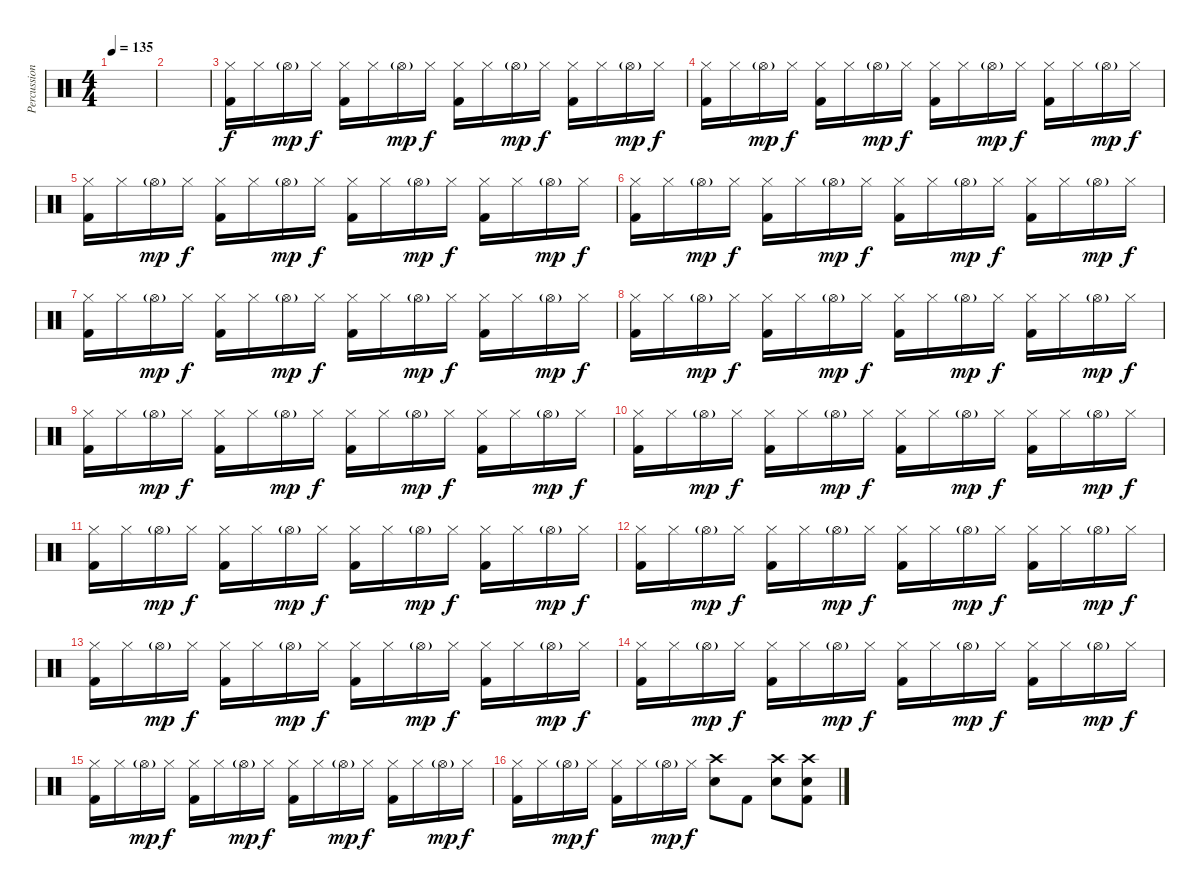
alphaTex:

\track ("Percussion" "Percussion") {instrument percussion}
\staff {score}
\articulation defaults
\ts (4 4)
\tempo 135
\clef neutral
\ks c
|
|
("Hi-Hat (closed)" "Kick (hit) 2").16 "Hi-Hat (closed)".16 "Hi-Hat (open)"{g}.16{dy mp} "Hi-Hat (closed)".16{dy f} ("Hi-Hat (closed)" "Kick (hit) 2").16 "Hi-Hat (closed)".16 "Hi-Hat (open)"{g}.16{dy mp} "Hi-Hat (closed)".16{dy f} ("Hi-Hat (closed)" "Kick (hit) 2").16 "Hi-Hat (closed)".16 "Hi-Hat (open)"{g}.16{dy mp} "Hi-Hat (closed)".16{dy f} ("Hi-Hat (closed)" "Kick (hit) 2").16 "Hi-Hat (closed)".16 "Hi-Hat (open)"{g}.16{dy mp} "Hi-Hat (closed)".16{dy f} |
("Hi-Hat (closed)" "Kick (hit) 2").16 "Hi-Hat (closed)".16 "Hi-Hat (open)"{g}.16{dy mp} "Hi-Hat (closed)".16{dy f} ("Hi-Hat (closed)" "Kick (hit) 2").16 "Hi-Hat (closed)".16 "Hi-Hat (open)"{g}.16{dy mp} "Hi-Hat (closed)".16{dy f} ("Hi-Hat (closed)" "Kick (hit) 2").16 "Hi-Hat (closed)".16 "Hi-Hat (open)"{g}.16{dy mp} "Hi-Hat (closed)".16{dy f} ("Hi-Hat (closed)" "Kick (hit) 2").16 "Hi-Hat (closed)".16 "Hi-Hat (open)"{g}.16{dy mp} "Hi-Hat (closed)".16{dy f} |
("Hi-Hat (closed)" "Kick (hit) 2").16 "Hi-Hat (closed)".16 "Hi-Hat (open)"{g}.16{dy mp} "Hi-Hat (closed)".16{dy f} ("Hi-Hat (closed)" "Kick (hit) 2").16 "Hi-Hat (closed)".16 "Hi-Hat (open)"{g}.16{dy mp} "Hi-Hat (closed)".16{dy f} ("Hi-Hat (closed)" "Kick (hit) 2").16 "Hi-Hat (closed)".16 "Hi-Hat (open)"{g}.16{dy mp} "Hi-Hat (closed)".16{dy f} ("Hi-Hat (closed)" "Kick (hit) 2").16 "Hi-Hat (closed)".16 "Hi-Hat (open)"{g}.16{dy mp} "Hi-Hat (closed)".16{dy f} |
("Hi-Hat (closed)" "Kick (hit) 2").16 "Hi-Hat (closed)".16 "Hi-Hat (open)"{g}.16{dy mp} "Hi-Hat (closed)".16{dy f} ("Hi-Hat (closed)" "Kick (hit) 2").16 "Hi-Hat (closed)".16 "Hi-Hat (open)"{g}.16{dy mp} "Hi-Hat (closed)".16{dy f} ("Hi-Hat (closed)" "Kick (hit) 2").16 "Hi-Hat (closed)".16 "Hi-Hat (open)"{g}.16{dy mp} "Hi-Hat (closed)".16{dy f} ("Hi-Hat (closed)" "Kick (hit) 2").16 "Hi-Hat (closed)".16 "Hi-Hat (open)"{g}.16{dy mp} "Hi-Hat (closed)".16{dy f} |
("Hi-Hat (closed)" "Kick (hit) 2").16 "Hi-Hat (closed)".16 "Hi-Hat (open)"{g}.16{dy mp} "Hi-Hat (closed)".16{dy f} ("Hi-Hat (closed)" "Kick (hit) 2").16 "Hi-Hat (closed)".16 "Hi-Hat (open)"{g}.16{dy mp} "Hi-Hat (closed)".16{dy f} ("Hi-Hat (closed)" "Kick (hit) 2").16 "Hi-Hat (closed)".16 "Hi-Hat (open)"{g}.16{dy mp} "Hi-Hat (closed)".16{dy f} ("Hi-Hat (closed)" "Kick (hit) 2").16 "Hi-Hat (closed)".16 "Hi-Hat (open)"{g}.16{dy mp} "Hi-Hat (closed)".16{dy f} |
("Hi-Hat (closed)" "Kick (hit) 2").16 "Hi-Hat (closed)".16 "Hi-Hat (open)"{g}.16{dy mp} "Hi-Hat (closed)".16{dy f} ("Hi-Hat (closed)" "Kick (hit) 2").16 "Hi-Hat (closed)".16 "Hi-Hat (open)"{g}.16{dy mp} "Hi-Hat (closed)".16{dy f} ("Hi-Hat (closed)" "Kick (hit) 2").16 "Hi-Hat (closed)".16 "Hi-Hat (open)"{g}.16{dy mp} "Hi-Hat (closed)".16{dy f} ("Hi-Hat (closed)" "Kick (hit) 2").16 "Hi-Hat (closed)".16 "Hi-Hat (open)"{g}.16{dy mp} "Hi-Hat (closed)".16{dy f} |
("Hi-Hat (closed)" "Kick (hit) 2").16 "Hi-Hat (closed)".16 "Hi-Hat (open)"{g}.16{dy mp} "Hi-Hat (closed)".16{dy f} ("Hi-Hat (closed)" "Kick (hit) 2").16 "Hi-Hat (closed)".16 "Hi-Hat (open)"{g}.16{dy mp} "Hi-Hat (closed)".16{dy f} ("Hi-Hat (closed)" "Kick (hit) 2").16 "Hi-Hat (closed)".16 "Hi-Hat (open)"{g}.16{dy mp} "Hi-Hat (closed)".16{dy f} ("Hi-Hat (closed)" "Kick (hit) 2").16 "Hi-Hat (closed)".16 "Hi-Hat (open)"{g}.16{dy mp} "Hi-Hat (closed)".16{dy f} |
("Hi-Hat (closed)" "Kick (hit) 2").16 "Hi-Hat (closed)".16 "Hi-Hat (open)"{g}.16{dy mp} "Hi-Hat (closed)".16{dy f} ("Hi-Hat (closed)" "Kick (hit) 2").16 "Hi-Hat (closed)".16 "Hi-Hat (open)"{g}.16{dy mp} "Hi-Hat (closed)".16{dy f} ("Hi-Hat (closed)" "Kick (hit) 2").16 "Hi-Hat (closed)".16 "Hi-Hat (open)"{g}.16{dy mp} "Hi-Hat (closed)".16{dy f} ("Hi-Hat (closed)" "Kick (hit) 2").16 "Hi-Hat (closed)".16 "Hi-Hat (open)"{g}.16{dy mp} "Hi-Hat (closed)".16{dy f} |
("Hi-Hat (closed)" "Kick (hit) 2").16 "Hi-Hat (closed)".16 "Hi-Hat (open)"{g}.16{dy mp} "Hi-Hat (closed)".16{dy f} ("Hi-Hat (closed)" "Kick (hit) 2").16 "Hi-Hat (closed)".16 "Hi-Hat (open)"{g}.16{dy mp} "Hi-Hat (closed)".16{dy f} ("Hi-Hat (closed)" "Kick (hit) 2").16 "Hi-Hat (closed)".16 "Hi-Hat (open)"{g}.16{dy mp} "Hi-Hat (closed)".16{dy f} ("Hi-Hat (closed)" "Kick (hit) 2").16 "Hi-Hat (closed)".16 "Hi-Hat (open)"{g}.16{dy mp} "Hi-Hat (closed)".16{dy f} |
("Hi-Hat (closed)" "Kick (hit) 2").16 "Hi-Hat (closed)".16 "Hi-Hat (open)"{g}.16{dy mp} "Hi-Hat (closed)".16{dy f} ("Hi-Hat (closed)" "Kick (hit) 2").16 "Hi-Hat (closed)".16 "Hi-Hat (open)"{g}.16{dy mp} "Hi-Hat (closed)".16{dy f} ("Hi-Hat (closed)" "Kick (hit) 2").16 "Hi-Hat (closed)".16 "Hi-Hat (open)"{g}.16{dy mp} "Hi-Hat (closed)".16{dy f} ("Hi-Hat (closed)" "Kick (hit) 2").16 "Hi-Hat (closed)".16 "Hi-Hat (open)"{g}.16{dy mp} "Hi-Hat (closed)".16{dy f} |
("Hi-Hat (closed)" "Kick (hit) 2").16 "Hi-Hat (closed)".16 "Hi-Hat (open)"{g}.16{dy mp} "Hi-Hat (closed)".16{dy f} ("Hi-Hat (closed)" "Kick (hit) 2").16 "Hi-Hat (closed)".16 "Hi-Hat (open)"{g}.16{dy mp} "Hi-Hat (closed)".16{dy f} ("Hi-Hat (closed)" "Kick (hit) 2").16 "Hi-Hat (closed)".16 "Hi-Hat (open)"{g}.16{dy mp} "Hi-Hat (closed)".16{dy f} ("Hi-Hat (closed)" "Kick (hit) 2").16 "Hi-Hat (closed)".16 "Hi-Hat (open)"{g}.16{dy mp} "Hi-Hat (closed)".16{dy f} |
("Hi-Hat (closed)" "Kick (hit) 2").16 "Hi-Hat (closed)".16 "Hi-Hat (open)"{g}.16{dy mp} "Hi-Hat (closed)".16{dy f} ("Hi-Hat (closed)" "Kick (hit) 2").16 "Hi-Hat (closed)".16 "Hi-Hat (open)"{g}.16{dy mp} "Hi-Hat (closed)".16{dy f} ("Hi-Hat (closed)" "Kick (hit) 2").16 "Hi-Hat (closed)".16 "Hi-Hat (open)"{g}.16{dy mp} "Hi-Hat (closed)".16{dy f} ("Hi-Hat (closed)" "Kick (hit) 2").16 "Hi-Hat (closed)".16 "Hi-Hat (open)"{g}.16{dy mp} "Hi-Hat (closed)".16{dy f} |
("Hi-Hat (closed)" "Kick (hit) 2").16 "Hi-Hat (closed)".16 "Hi-Hat (open)"{g}.16{dy mp} "Hi-Hat (closed)".16{dy f} ("Hi-Hat (closed)" "Kick (hit) 2").16 "Hi-Hat (closed)".16 "Hi-Hat (open)"{g}.16{dy mp} "Hi-Hat (closed)".16{dy f} ("Hi-Hat (closed)" "Kick (hit) 2").16 "Hi-Hat (closed)".16 "Hi-Hat (open)"{g}.16{dy mp} "Hi-Hat (closed)".16{dy f} ("Hi-Hat (closed)" "Kick (hit) 2").16 "Hi-Hat (closed)".16 "Hi-Hat (open)"{g}.16{dy mp} "Hi-Hat (closed)".16{dy f} |
("Hi-Hat (closed)" "Kick (hit) 2").16 "Hi-Hat (closed)".16 "Hi-Hat (open)"{g}.16{dy mp} "Hi-Hat (closed)".16{dy f} ("Hi-Hat (closed)" "Kick (hit) 2").16 "Hi-Hat (closed)".16 "Hi-Hat (open)"{g}.16{dy mp} "Hi-Hat (closed)".16{dy f} ("Crash high (hit)" "Electric Snare (hit)").8 "Kick (hit) 2".8 ("Crash high (hit)" "Electric Snare (hit)").8 ("Crash high (hit)" "Electric Snare (hit)" "Kick (hit) 2").8
